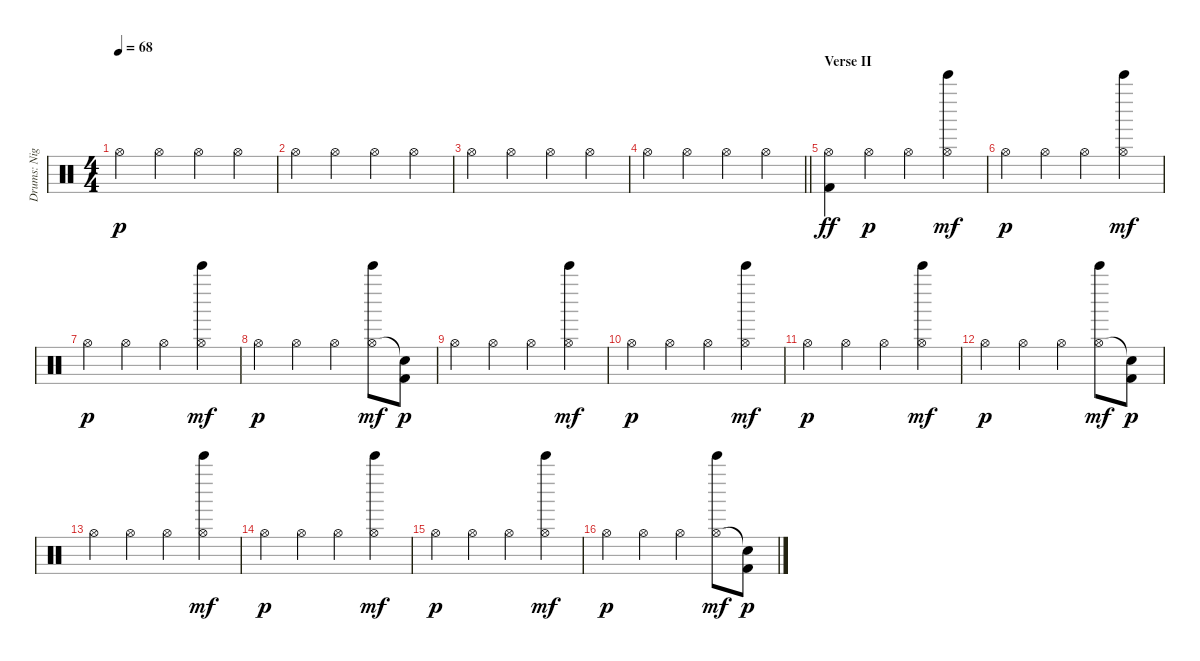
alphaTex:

\track ("Drums: Nigel Olsson" "Drums: Nig") {instrument percussion}
\staff {score}
\articulation defaults
\ts (4 4)
\tempo 68
\clef neutral
\ks c "Hi-Hat (open)".4{dy p} "Hi-Hat (open)".4 "Hi-Hat (open)".4 "Hi-Hat (open)".4
|
"Hi-Hat (open)".4 "Hi-Hat (open)".4 "Hi-Hat (open)".4 "Hi-Hat (open)".4 |
"Hi-Hat (open)".4 "Hi-Hat (open)".4 "Hi-Hat (open)".4 "Hi-Hat (open)".4 |
\barLineRight lightlight "Hi-Hat (open)".4 "Hi-Hat (open)".4 "Hi-Hat (open)".4 "Hi-Hat (open)".4
|
\section ("" "Verse II")
("Hi-Hat (open)" "Kick (hit) 2").4{dy ff} "Hi-Hat (open)".4{dy p} "Hi-Hat (open)".4 ("Hi-Hat (open)" "Bell Tree (hit)").4{dy mf} |
"Hi-Hat (open)".4{dy p} "Hi-Hat (open)".4 "Hi-Hat (open)".4 ("Hi-Hat (open)" "Bell Tree (hit)").4{dy mf} |
"Hi-Hat (open)".4{dy p} "Hi-Hat (open)".4 "Hi-Hat (open)".4 ("Hi-Hat (open)" "Bell Tree (hit)").4{dy mf} |
"Hi-Hat (open)".4{dy p} "Hi-Hat (open)".4 "Hi-Hat (open)".4 ("Hi-Hat (open)" "Bell Tree (hit)").8{dy mf} ("Snare (hit)"{t} "Kick (hit) 2").8{dy p} |
"Hi-Hat (open)".4 "Hi-Hat (open)".4 "Hi-Hat (open)".4 ("Hi-Hat (open)" "Bell Tree (hit)").4{dy mf} |
"Hi-Hat (open)".4{dy p} "Hi-Hat (open)".4 "Hi-Hat (open)".4 ("Hi-Hat (open)" "Bell Tree (hit)").4{dy mf} |
"Hi-Hat (open)".4{dy p} "Hi-Hat (open)".4 "Hi-Hat (open)".4 ("Hi-Hat (open)" "Bell Tree (hit)").4{dy mf} |
"Hi-Hat (open)".4{dy p} "Hi-Hat (open)".4 "Hi-Hat (open)".4 ("Hi-Hat (open)" "Bell Tree (hit)").8{dy mf} ("Snare (hit)"{t} "Kick (hit) 2").8{dy p} |
"Hi-Hat (open)".4 "Hi-Hat (open)".4 "Hi-Hat (open)".4 ("Hi-Hat (open)" "Bell Tree (hit)").4{dy mf} |
"Hi-Hat (open)".4{dy p} "Hi-Hat (open)".4 "Hi-Hat (open)".4 ("Hi-Hat (open)" "Bell Tree (hit)").4{dy mf} |
"Hi-Hat (open)".4{dy p} "Hi-Hat (open)".4 "Hi-Hat (open)".4 ("Hi-Hat (open)" "Bell Tree (hit)").4{dy mf} |
"Hi-Hat (open)".4{dy p} "Hi-Hat (open)".4 "Hi-Hat (open)".4 ("Hi-Hat (open)" "Bell Tree (hit)").8{dy mf} ("Snare (hit)"{t} "Kick (hit) 2").8{dy p}
